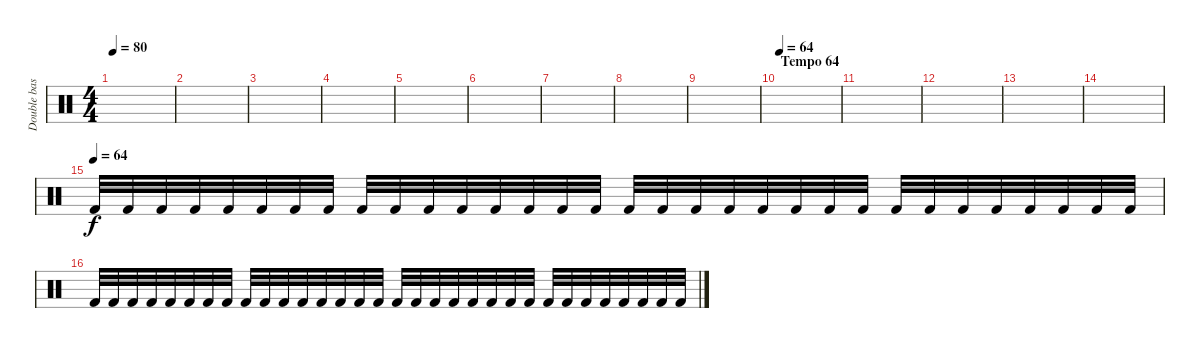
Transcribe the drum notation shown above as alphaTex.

\track ("Double bass drum" "Double bas") {instrument percussion}
\staff {score}
\articulation defaults
\ts (4 4)
\tempo 80
\clef neutral
\ks c
|
|
|
|
|
|
|
|
|
\section ("" "Tempo 64")
\tempo 64
|
|
|
|
|
\tempo (64)
"Kick (hit) 2".32 "Kick (hit) 2".32 "Kick (hit) 2".32 "Kick (hit) 2".32 "Kick (hit) 2".32 "Kick (hit) 2".32 "Kick (hit) 2".32 "Kick (hit) 2".32 "Kick (hit) 2".32 "Kick (hit) 2".32 "Kick (hit) 2".32 "Kick (hit) 2".32 "Kick (hit) 2".32 "Kick (hit) 2".32 "Kick (hit) 2".32 "Kick (hit) 2".32 "Kick (hit) 2".32 "Kick (hit) 2".32 "Kick (hit) 2".32 "Kick (hit) 2".32 "Kick (hit) 2".32 "Kick (hit) 2".32 "Kick (hit) 2".32 "Kick (hit) 2".32 "Kick (hit) 2".32 "Kick (hit) 2".32 "Kick (hit) 2".32 "Kick (hit) 2".32 "Kick (hit) 2".32 "Kick (hit) 2".32 "Kick (hit) 2".32 "Kick (hit) 2".32 |
"Kick (hit) 2".32 "Kick (hit) 2".32 "Kick (hit) 2".32 "Kick (hit) 2".32 "Kick (hit) 2".32 "Kick (hit) 2".32 "Kick (hit) 2".32 "Kick (hit) 2".32 "Kick (hit) 2".32 "Kick (hit) 2".32 "Kick (hit) 2".32 "Kick (hit) 2".32 "Kick (hit) 2".32 "Kick (hit) 2".32 "Kick (hit) 2".32 "Kick (hit) 2".32 "Kick (hit) 2".32 "Kick (hit) 2".32 "Kick (hit) 2".32 "Kick (hit) 2".32 "Kick (hit) 2".32 "Kick (hit) 2".32 "Kick (hit) 2".32 "Kick (hit) 2".32 "Kick (hit) 2".32 "Kick (hit) 2".32 "Kick (hit) 2".32 "Kick (hit) 2".32 "Kick (hit) 2".32 "Kick (hit) 2".32 "Kick (hit) 2".32 "Kick (hit) 2".32
